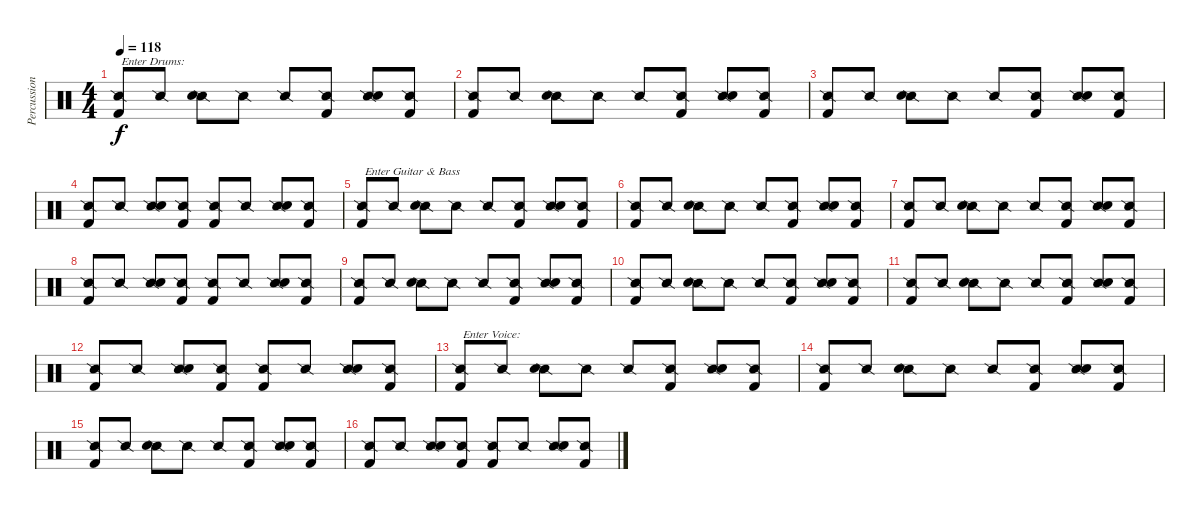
\track ("Percussion" "Percussion") {instrument percussion}
\staff {score}
\articulation defaults
\ts (4 4)
\tempo 118
\clef neutral
\ks c
("Snare (side stick) 2" "Kick (hit) 2").8{txt "Enter Drums:" dy f} "Snare (side stick) 2".8 ("Snare (side stick) 2" "Electric Snare (hit)").8 "Snare (side stick) 2".8 "Snare (side stick) 2".8 ("Snare (side stick) 2" "Kick (hit) 2").8 ("Snare (side stick) 2" "Electric Snare (hit)").8 ("Snare (side stick) 2" "Kick (hit) 2").8 |
("Snare (side stick) 2" "Kick (hit) 2").8 "Snare (side stick) 2".8 ("Snare (side stick) 2" "Electric Snare (hit)").8 "Snare (side stick) 2".8 "Snare (side stick) 2".8 ("Snare (side stick) 2" "Kick (hit) 2").8 ("Snare (side stick) 2" "Electric Snare (hit)").8 ("Snare (side stick) 2" "Kick (hit) 2").8 |
("Snare (side stick) 2" "Kick (hit) 2").8 "Snare (side stick) 2".8 ("Snare (side stick) 2" "Electric Snare (hit)").8 "Snare (side stick) 2".8 "Snare (side stick) 2".8 ("Snare (side stick) 2" "Kick (hit) 2").8 ("Snare (side stick) 2" "Electric Snare (hit)").8 ("Snare (side stick) 2" "Kick (hit) 2").8 |
("Snare (side stick) 2" "Kick (hit) 2").8 "Snare (side stick) 2".8 ("Snare (side stick) 2" "Electric Snare (hit)").8 ("Snare (side stick) 2" "Kick (hit) 2").8 ("Snare (side stick) 2" "Kick (hit) 2").8 "Snare (side stick) 2".8 ("Snare (side stick) 2" "Electric Snare (hit)").8 ("Snare (side stick) 2" "Kick (hit) 2").8 |
("Snare (side stick) 2" "Kick (hit) 2").8{txt "Enter Guitar & Bass"} "Snare (side stick) 2".8 ("Snare (side stick) 2" "Electric Snare (hit)").8 "Snare (side stick) 2".8 "Snare (side stick) 2".8 ("Snare (side stick) 2" "Kick (hit) 2").8 ("Snare (side stick) 2" "Electric Snare (hit)").8 ("Snare (side stick) 2" "Kick (hit) 2").8 |
("Snare (side stick) 2" "Kick (hit) 2").8 "Snare (side stick) 2".8 ("Snare (side stick) 2" "Electric Snare (hit)").8 "Snare (side stick) 2".8 "Snare (side stick) 2".8 ("Snare (side stick) 2" "Kick (hit) 2").8 ("Snare (side stick) 2" "Electric Snare (hit)").8 ("Snare (side stick) 2" "Kick (hit) 2").8 |
("Snare (side stick) 2" "Kick (hit) 2").8 "Snare (side stick) 2".8 ("Snare (side stick) 2" "Electric Snare (hit)").8 "Snare (side stick) 2".8 "Snare (side stick) 2".8 ("Snare (side stick) 2" "Kick (hit) 2").8 ("Snare (side stick) 2" "Electric Snare (hit)").8 ("Snare (side stick) 2" "Kick (hit) 2").8 |
("Snare (side stick) 2" "Kick (hit) 2").8 "Snare (side stick) 2".8 ("Snare (side stick) 2" "Electric Snare (hit)").8 ("Snare (side stick) 2" "Kick (hit) 2").8 ("Snare (side stick) 2" "Kick (hit) 2").8 "Snare (side stick) 2".8 ("Snare (side stick) 2" "Electric Snare (hit)").8 ("Snare (side stick) 2" "Kick (hit) 2").8 |
("Snare (side stick) 2" "Kick (hit) 2").8 "Snare (side stick) 2".8 ("Snare (side stick) 2" "Electric Snare (hit)").8 "Snare (side stick) 2".8 "Snare (side stick) 2".8 ("Snare (side stick) 2" "Kick (hit) 2").8 ("Snare (side stick) 2" "Electric Snare (hit)").8 ("Snare (side stick) 2" "Kick (hit) 2").8 |
("Snare (side stick) 2" "Kick (hit) 2").8 "Snare (side stick) 2".8 ("Snare (side stick) 2" "Electric Snare (hit)").8 "Snare (side stick) 2".8 "Snare (side stick) 2".8 ("Snare (side stick) 2" "Kick (hit) 2").8 ("Snare (side stick) 2" "Electric Snare (hit)").8 ("Snare (side stick) 2" "Kick (hit) 2").8 |
("Snare (side stick) 2" "Kick (hit) 2").8 "Snare (side stick) 2".8 ("Snare (side stick) 2" "Electric Snare (hit)").8 "Snare (side stick) 2".8 "Snare (side stick) 2".8 ("Snare (side stick) 2" "Kick (hit) 2").8 ("Snare (side stick) 2" "Electric Snare (hit)").8 ("Snare (side stick) 2" "Kick (hit) 2").8 |
("Snare (side stick) 2" "Kick (hit) 2").8 "Snare (side stick) 2".8 ("Snare (side stick) 2" "Electric Snare (hit)").8 ("Snare (side stick) 2" "Kick (hit) 2").8 ("Snare (side stick) 2" "Kick (hit) 2").8 "Snare (side stick) 2".8 ("Snare (side stick) 2" "Electric Snare (hit)").8 ("Snare (side stick) 2" "Kick (hit) 2").8 |
("Snare (side stick) 2" "Kick (hit) 2").8{txt "Enter Voice:"} "Snare (side stick) 2".8 ("Snare (side stick) 2" "Electric Snare (hit)").8 "Snare (side stick) 2".8 "Snare (side stick) 2".8 ("Snare (side stick) 2" "Kick (hit) 2").8 ("Snare (side stick) 2" "Electric Snare (hit)").8 ("Snare (side stick) 2" "Kick (hit) 2").8 |
("Snare (side stick) 2" "Kick (hit) 2").8 "Snare (side stick) 2".8 ("Snare (side stick) 2" "Electric Snare (hit)").8 "Snare (side stick) 2".8 "Snare (side stick) 2".8 ("Snare (side stick) 2" "Kick (hit) 2").8 ("Snare (side stick) 2" "Electric Snare (hit)").8 ("Snare (side stick) 2" "Kick (hit) 2").8 |
("Snare (side stick) 2" "Kick (hit) 2").8 "Snare (side stick) 2".8 ("Snare (side stick) 2" "Electric Snare (hit)").8 "Snare (side stick) 2".8 "Snare (side stick) 2".8 ("Snare (side stick) 2" "Kick (hit) 2").8 ("Snare (side stick) 2" "Electric Snare (hit)").8 ("Snare (side stick) 2" "Kick (hit) 2").8 |
("Snare (side stick) 2" "Kick (hit) 2").8 "Snare (side stick) 2".8 ("Snare (side stick) 2" "Electric Snare (hit)").8 ("Snare (side stick) 2" "Kick (hit) 2").8 ("Snare (side stick) 2" "Kick (hit) 2").8 "Snare (side stick) 2".8 ("Snare (side stick) 2" "Electric Snare (hit)").8 ("Snare (side stick) 2" "Kick (hit) 2").8
